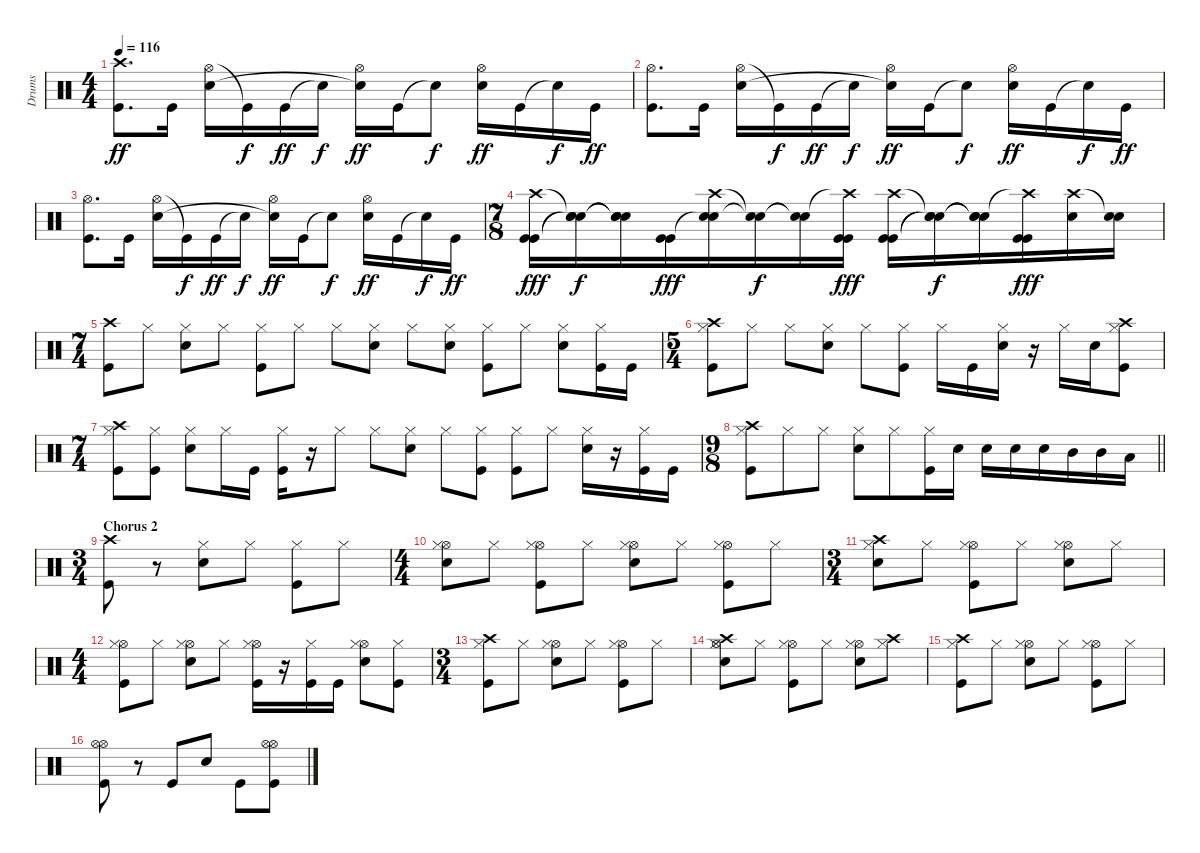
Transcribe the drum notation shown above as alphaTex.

\track ("Drums" "Drums") {instrument percussion}
\staff {score}
\articulation defaults
\ts (4 4)
\tempo 116
\clef neutral
\ks c
("Crash high (hit)" "Kick (hit)").8{d dy ff} "Kick (hit)".16 ("Hi-Hat (open)" "Electric Snare (hit)").16 "Kick (hit)"{t}.16{dy f} "Kick (hit)".16{dy ff} "Snare (hit)"{t}.16{dy f} ("Hi-Hat (open)" "Snare (hit)"{t}).16{dy ff} "Kick (hit)".16 "Snare (hit)"{t}.8{dy f} ("Hi-Hat (open)" "Electric Snare (hit)").16{dy ff} "Kick (hit)".16 "Snare (hit)"{t}.16{dy f} "Kick (hit)".16{dy ff} |
("Hi-Hat (open)" "Kick (hit)").8{d} "Kick (hit)".16 ("Hi-Hat (open)" "Electric Snare (hit)").16 "Kick (hit)"{t}.16{dy f} "Kick (hit)".16{dy ff} "Snare (hit)"{t}.16{dy f} ("Hi-Hat (open)" "Snare (hit)"{t}).16{dy ff} "Kick (hit)".16 "Snare (hit)"{t}.8{dy f} ("Hi-Hat (open)" "Electric Snare (hit)").16{dy ff} "Kick (hit)".16 "Snare (hit)"{t}.16{dy f} "Kick (hit)".16{dy ff} |
("Hi-Hat (open)" "Kick (hit)").8{d} "Kick (hit)".16 ("Hi-Hat (open)" "Electric Snare (hit)").16 "Kick (hit)"{t}.16{dy f} "Kick (hit)".16{dy ff} "Snare (hit)"{t}.16{dy f} ("Hi-Hat (open)" "Snare (hit)"{t}).16{dy ff} "Kick (hit)".16 "Snare (hit)"{t}.8{dy f} ("Hi-Hat (open)" "Electric Snare (hit)").16{dy ff} "Kick (hit)".16 "Snare (hit)"{t}.16{dy f} "Kick (hit)".16{dy ff} |
\ts (7 8)
("Crash high (hit)" "Kick (hit)" "Kick (hit)").16{dy fff} ("Snare (hit)"{t} "Snare (hit)"{t} "Snare (hit)"{t}).16{dy f} ("Snare (hit)"{t} "Snare (hit)"{t} "Snare (hit)"{t}).16 ("Kick (hit)" "Kick (hit)").16{dy fff} ("Crash high (hit)" "Snare (hit)"{t} "Electric Snare (hit)").16 ("Snare (hit)"{t} "Snare (hit)"{t}).16{dy f} ("Snare (hit)"{t} "Snare (hit)"{t}).16 ("Crash high (hit)"{t} "Kick (hit)" "Kick (hit)").16{dy fff} ("Crash high (hit)" "Kick (hit)" "Kick (hit)").16 ("Snare (hit)"{t} "Snare (hit)"{t} "Snare (hit)"{t}).16{dy f} ("Snare (hit)"{t} "Snare (hit)"{t} "Snare (hit)"{t}).16 ("Crash high (hit)"{t} "Kick (hit)" "Kick (hit)").16{dy fff} ("Crash high (hit)" "Electric Snare (hit)").16 ("Snare (hit)"{t} "Electric Snare (hit)").16 |
\ts (7 4)
("Crash high (hit)" "Kick (hit)").8 "Hi-Hat (closed)".8 ("Hi-Hat (closed)" "Electric Snare (hit)").8 "Hi-Hat (closed)".8 ("Hi-Hat (closed)" "Kick (hit)").8 "Hi-Hat (closed)".8 "Hi-Hat (closed)".8 ("Hi-Hat (closed)" "Electric Snare (hit)").8 "Hi-Hat (closed)".8 ("Hi-Hat (closed)" "Electric Snare (hit)").8 ("Hi-Hat (closed)" "Kick (hit)").8 "Hi-Hat (closed)".8 ("Hi-Hat (closed)" "Electric Snare (hit)").8 ("Hi-Hat (closed)" "Kick (hit)").16 "Kick (hit)".16 |
\ts (5 4)
("Crash high (hit)" "Hi-Hat (closed)" "Kick (hit)").8 "Hi-Hat (closed)".8 "Hi-Hat (closed)".8 ("Hi-Hat (closed)" "Electric Snare (hit)").8 "Hi-Hat (closed)".8 ("Hi-Hat (closed)" "Kick (hit)").8 "Hi-Hat (closed)".16 "Kick (hit)".16 ("Hi-Hat (closed)" "Electric Snare (hit)").16 r.16 "Hi-Hat (closed)".16 "Electric Snare (hit)".16 ("Crash high (hit)" "Hi-Hat (closed)" "Kick (hit)").8 |
\ts (7 4)
("Crash high (hit)" "Hi-Hat (closed)" "Kick (hit)").8 ("Hi-Hat (closed)" "Kick (hit)").8 ("Hi-Hat (closed)" "Electric Snare (hit)").8 "Hi-Hat (closed)".16 "Kick (hit)".16 ("Hi-Hat (closed)" "Kick (hit)").16 r.16 "Hi-Hat (closed)".8 "Hi-Hat (closed)".8 ("Hi-Hat (closed)" "Electric Snare (hit)").8 "Hi-Hat (closed)".8 ("Hi-Hat (closed)" "Kick (hit)").8 ("Hi-Hat (closed)" "Kick (hit)").8 "Hi-Hat (closed)".8 ("Hi-Hat (closed)" "Electric Snare (hit)").16 r.16 ("Hi-Hat (closed)" "Kick (hit)").16 "Kick (hit)".16 |
\ts (9 8)
\barLineRight lightlight
("Crash high (hit)" "Hi-Hat (closed)" "Kick (hit)").8 "Hi-Hat (closed)".8 "Hi-Hat (closed)".8 ("Hi-Hat (closed)" "Electric Snare (hit)").8 "Hi-Hat (closed)".8 ("Hi-Hat (closed)" "Kick (hit)").16 "Electric Snare (hit)".16 "Electric Snare (hit)".16 "Electric Snare (hit)".16 "Electric Snare (hit)".16 "Mid Tom (hit)".16 "Mid Tom (hit)".16 "Low Tom (hit)".16 |
\ts (3 4)
\section ("" "Chorus 2")
("Crash high (hit)" "Kick (hit)").8 r.8 ("Hi-Hat (closed)" "Electric Snare (hit)").8 "Hi-Hat (closed)".8 ("Hi-Hat (closed)" "Kick (hit)").8 "Hi-Hat (closed)".8 |
\ts (4 4)
("Hi-Hat (open)" "Hi-Hat (closed)" "Electric Snare (hit)").8 "Hi-Hat (closed)".8 ("Hi-Hat (open)" "Hi-Hat (closed)" "Kick (hit)").8 "Hi-Hat (closed)".8 ("Hi-Hat (open)" "Hi-Hat (closed)" "Electric Snare (hit)").8 "Hi-Hat (closed)".8 ("Hi-Hat (open)" "Hi-Hat (closed)" "Kick (hit)").8 "Hi-Hat (closed)".8 |
\ts (3 4)
("Crash high (hit)" "Hi-Hat (closed)" "Electric Snare (hit)").8 "Hi-Hat (closed)".8 ("Hi-Hat (open)" "Hi-Hat (closed)" "Kick (hit)").8 "Hi-Hat (closed)".8 ("Hi-Hat (open)" "Hi-Hat (closed)" "Electric Snare (hit)").8 "Hi-Hat (closed)".8 |
\ts (4 4)
("Hi-Hat (open)" "Hi-Hat (closed)" "Kick (hit)").8 "Hi-Hat (closed)".8 ("Hi-Hat (open)" "Hi-Hat (closed)" "Electric Snare (hit)").8 "Hi-Hat (closed)".8 ("Hi-Hat (open)" "Hi-Hat (closed)" "Kick (hit)").16 r.16 ("Hi-Hat (closed)" "Kick (hit)").16 "Kick (hit)".16 ("Hi-Hat (open)" "Hi-Hat (closed)" "Electric Snare (hit)").8 ("Hi-Hat (closed)" "Kick (hit)").8 |
\ts (3 4)
("Crash high (hit)" "Hi-Hat (closed)" "Kick (hit)").8 "Hi-Hat (closed)".8 ("Hi-Hat (open)" "Hi-Hat (closed)" "Electric Snare (hit)").8 "Hi-Hat (closed)".8 ("Hi-Hat (open)" "Hi-Hat (closed)" "Kick (hit)").8 "Hi-Hat (closed)".8 |
("Crash high (hit)" "Hi-Hat (open)" "Hi-Hat (closed)" "Electric Snare (hit)").8 "Hi-Hat (closed)".8 ("Hi-Hat (open)" "Hi-Hat (closed)" "Kick (hit)").8 "Hi-Hat (closed)".8 ("Hi-Hat (open)" "Hi-Hat (closed)" "Electric Snare (hit)").8 ("Crash high (hit)" "Hi-Hat (closed)").8 |
("Crash high (hit)" "Hi-Hat (closed)" "Kick (hit)").8 "Hi-Hat (closed)".8 ("Hi-Hat (open)" "Hi-Hat (closed)" "Electric Snare (hit)").8 "Hi-Hat (closed)".8 ("Hi-Hat (open)" "Hi-Hat (closed)" "Kick (hit)").8 "Hi-Hat (closed)".8 |
("Hi-Hat (open)" "Hi-Hat (open)" "Kick (hit)").8 r.8 "Kick (hit)".8 "Electric Snare (hit)".8 "Kick (hit)".8 ("Hi-Hat (open)" "Hi-Hat (open)" "Kick (hit)").8
